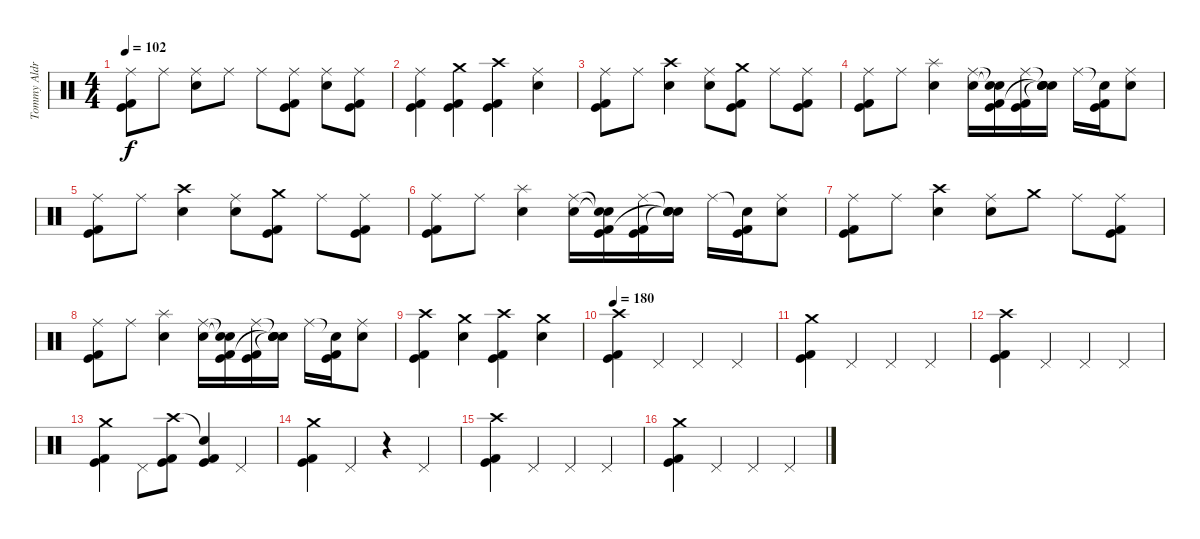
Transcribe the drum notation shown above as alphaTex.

\track ("Tommy Aldridge" "Tommy Aldr") {instrument percussion}
\staff {score}
\articulation defaults
\ts (4 4)
\tempo 102
\clef neutral
\ks c
("Ride (middle)" "Kick (hit)" "Kick (hit) 2").8{dy f} "Ride (middle)".8 ("Ride (middle)" "Electric Snare (hit)").8 "Ride (middle)".8 "Ride (middle)".8 ("Ride (middle)" "Kick (hit)" "Kick (hit) 2").8 ("Ride (middle)" "Electric Snare (hit)").8 ("Ride (middle)" "Kick (hit)" "Kick (hit) 2").8 |
("Ride (middle)" "Kick (hit)" "Kick (hit) 2").4 ("Crash medium (hit)" "Kick (hit)" "Kick (hit) 2").4 ("Crash high (hit)" "Kick (hit)" "Kick (hit) 2").4 ("Ride (middle)" "Electric Snare (hit)").4 |
("Ride (middle)" "Kick (hit)" "Kick (hit) 2").8 "Ride (middle)".8 ("Crash high (hit)" "Electric Snare (hit)").4 ("Ride (middle)" "Electric Snare (hit)").8 ("Crash medium (hit)" "Kick (hit)" "Kick (hit) 2").8 "Ride (middle)".8 ("Ride (middle)" "Kick (hit)" "Kick (hit) 2").8 |
("Ride (middle)" "Kick (hit)" "Kick (hit) 2").8 "Ride (middle)".8 ("Splash (hit)" "Electric Snare (hit)").4 ("Ride (middle)" "Electric Snare (hit)").16 ("Snare (hit)"{t} "Snare (hit)"{t} "Kick (hit)" "Kick (hit) 2").16 ("Ride (middle)" "Kick (hit)" "Kick (hit) 2").16 ("Snare (hit)"{t} "Electric Snare (hit)" "Snare (hit)"{t} "Snare (hit)"{t}).16 "Ride (middle)".16 ("Snare (hit)"{t} "Kick (hit)" "Kick (hit) 2").16 ("Ride (middle)" "Electric Snare (hit)").8 |
("Ride (middle)" "Kick (hit)" "Kick (hit) 2").8 "Ride (middle)".8 ("Crash high (hit)" "Electric Snare (hit)").4 ("Ride (middle)" "Electric Snare (hit)").8 ("Crash medium (hit)" "Kick (hit)" "Kick (hit) 2").8 "Ride (middle)".8 ("Ride (middle)" "Kick (hit)" "Kick (hit) 2").8 |
("Ride (middle)" "Kick (hit)" "Kick (hit) 2").8 "Ride (middle)".8 ("Splash (hit)" "Electric Snare (hit)").4 ("Ride (middle)" "Electric Snare (hit)").16 ("Snare (hit)"{t} "Snare (hit)"{t} "Kick (hit)" "Kick (hit) 2").16 ("Ride (middle)" "Kick (hit)" "Kick (hit) 2").16 ("Snare (hit)"{t} "Electric Snare (hit)" "Snare (hit)"{t} "Snare (hit)"{t}).16 "Ride (middle)".16 ("Snare (hit)"{t} "Kick (hit)" "Kick (hit) 2").16 ("Ride (middle)" "Electric Snare (hit)").8 |
("Ride (middle)" "Kick (hit)" "Kick (hit) 2").8 "Ride (middle)".8 ("Crash high (hit)" "Electric Snare (hit)").4 ("Ride (middle)" "Electric Snare (hit)").8 "Crash medium (hit)".8 "Ride (middle)".8 ("Ride (middle)" "Kick (hit)" "Kick (hit) 2").8 |
("Ride (middle)" "Kick (hit)" "Kick (hit) 2").8 "Ride (middle)".8 ("Splash (hit)" "Electric Snare (hit)").4 ("Ride (middle)" "Electric Snare (hit)").16 ("Snare (hit)"{t} "Snare (hit)"{t} "Kick (hit)" "Kick (hit) 2").16 ("Ride (middle)" "Kick (hit)" "Kick (hit) 2").16 ("Snare (hit)"{t} "Electric Snare (hit)" "Snare (hit)"{t} "Snare (hit)"{t}).16 "Ride (middle)".16 ("Snare (hit)"{t} "Kick (hit)" "Kick (hit) 2").16 ("Ride (middle)" "Electric Snare (hit)").8 |
("Crash high (hit)" "Kick (hit)" "Kick (hit) 2").4 ("Crash medium (hit)" "Electric Snare (hit)").4 ("Crash high (hit)" "Kick (hit)" "Kick (hit) 2").4 ("Crash medium (hit)" "Electric Snare (hit)").4 |
\tempo 180
("Crash high (hit)" "Kick (hit)" "Kick (hit) 2").4 "Pedal Hi-Hat (hit)".4 "Pedal Hi-Hat (hit)".4 "Pedal Hi-Hat (hit)".4 |
("Crash medium (hit)" "Kick (hit)" "Kick (hit) 2").4 "Pedal Hi-Hat (hit)".4 "Pedal Hi-Hat (hit)".4 "Pedal Hi-Hat (hit)".4 |
("Crash high (hit)" "Kick (hit)" "Kick (hit) 2").4 "Pedal Hi-Hat (hit)".4 "Pedal Hi-Hat (hit)".4 "Pedal Hi-Hat (hit)".4 |
("Crash medium (hit)" "Kick (hit)" "Kick (hit) 2").4 "Pedal Hi-Hat (hit)".8 ("Crash high (hit)" "Kick (hit)" "Kick (hit) 2").8 ("Snare (hit)"{t} "Kick (hit)" "Kick (hit) 2").4 "Pedal Hi-Hat (hit)".4 |
("Crash medium (hit)" "Kick (hit)" "Kick (hit) 2").4 "Pedal Hi-Hat (hit)".4 r.4 "Pedal Hi-Hat (hit)".4 |
("Crash high (hit)" "Kick (hit)" "Kick (hit) 2").4 "Pedal Hi-Hat (hit)".4 "Pedal Hi-Hat (hit)".4 "Pedal Hi-Hat (hit)".4 |
("Crash medium (hit)" "Kick (hit)" "Kick (hit) 2").4 "Pedal Hi-Hat (hit)".4 "Pedal Hi-Hat (hit)".4 "Pedal Hi-Hat (hit)".4
